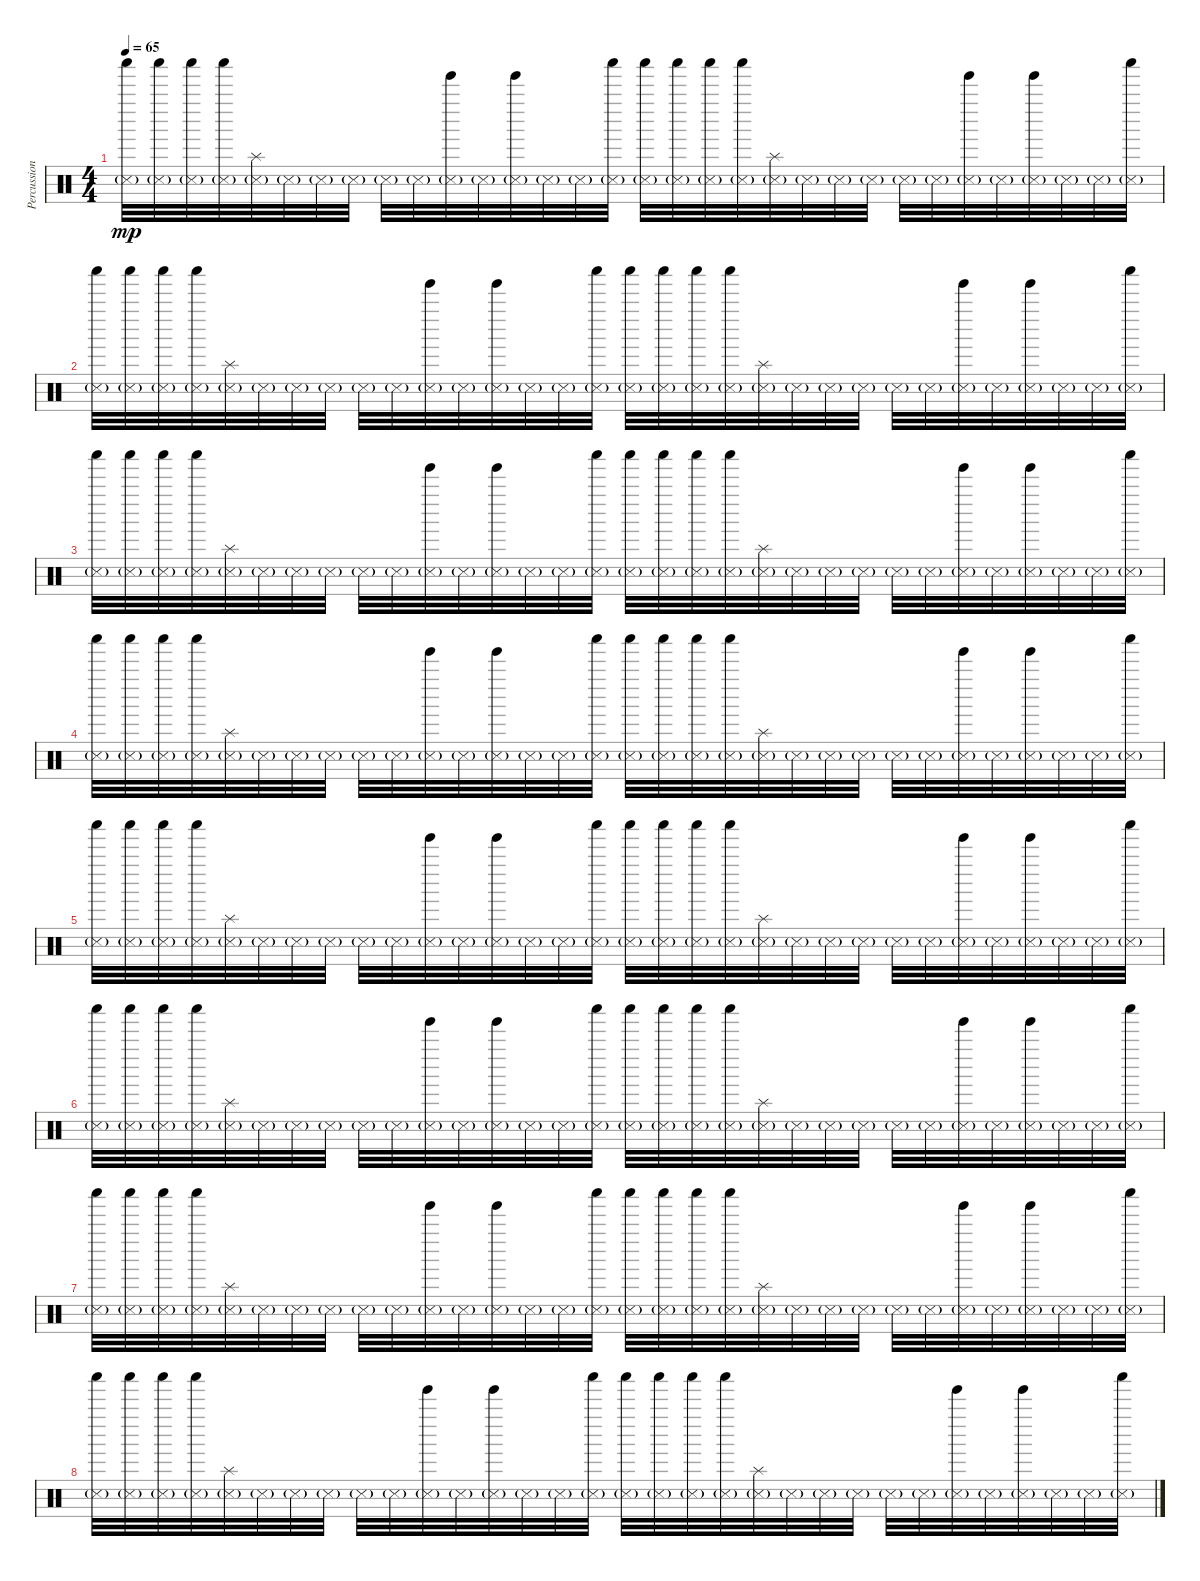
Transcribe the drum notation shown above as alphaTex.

\track ("Percussion 2" "Percussion") {instrument percussion}
\staff {score}
\articulation defaults
\ts (4 4)
\tempo 65
\clef neutral
\ks c
("Snare (side stick) 3"{g} "Shaker (hit)").32{dy mp} ("Snare (side stick) 3"{g} "Shaker (hit)").32 ("Snare (side stick) 3"{g} "Shaker (hit)").32 ("Snare (side stick) 3"{g} "Shaker (hit)").32 ("Snare (side stick) 3"{g} "Splash (hit)").32 "Snare (side stick) 3"{g}.32 "Snare (side stick) 3"{g}.32 "Snare (side stick) 3"{g}.32 "Snare (side stick) 3"{g}.32 "Snare (side stick) 3"{g}.32 ("Tinkle Bell (hit)" "Snare (side stick) 3"{g}).32 "Snare (side stick) 3"{g}.32 ("Tinkle Bell (hit)" "Snare (side stick) 3"{g}).32 "Snare (side stick) 3"{g}.32 "Snare (side stick) 3"{g}.32 ("Snare (side stick) 3"{g} "Shaker (hit)").32 ("Snare (side stick) 3"{g} "Shaker (hit)").32 ("Snare (side stick) 3"{g} "Shaker (hit)").32 ("Snare (side stick) 3"{g} "Shaker (hit)").32 ("Snare (side stick) 3"{g} "Shaker (hit)").32 ("Snare (side stick) 3"{g} "Splash (hit)").32 "Snare (side stick) 3"{g}.32 "Snare (side stick) 3"{g}.32 "Snare (side stick) 3"{g}.32 "Snare (side stick) 3"{g}.32 "Snare (side stick) 3"{g}.32 ("Tinkle Bell (hit)" "Snare (side stick) 3"{g}).32 "Snare (side stick) 3"{g}.32 ("Tinkle Bell (hit)" "Snare (side stick) 3"{g}).32 "Snare (side stick) 3"{g}.32 "Snare (side stick) 3"{g}.32 ("Snare (side stick) 3"{g} "Shaker (hit)").32 |
("Snare (side stick) 3"{g} "Shaker (hit)").32 ("Snare (side stick) 3"{g} "Shaker (hit)").32 ("Snare (side stick) 3"{g} "Shaker (hit)").32 ("Snare (side stick) 3"{g} "Shaker (hit)").32 ("Snare (side stick) 3"{g} "Splash (hit)").32 "Snare (side stick) 3"{g}.32 "Snare (side stick) 3"{g}.32 "Snare (side stick) 3"{g}.32 "Snare (side stick) 3"{g}.32 "Snare (side stick) 3"{g}.32 ("Tinkle Bell (hit)" "Snare (side stick) 3"{g}).32 "Snare (side stick) 3"{g}.32 ("Tinkle Bell (hit)" "Snare (side stick) 3"{g}).32 "Snare (side stick) 3"{g}.32 "Snare (side stick) 3"{g}.32 ("Snare (side stick) 3"{g} "Shaker (hit)").32 ("Snare (side stick) 3"{g} "Shaker (hit)").32 ("Snare (side stick) 3"{g} "Shaker (hit)").32 ("Snare (side stick) 3"{g} "Shaker (hit)").32 ("Snare (side stick) 3"{g} "Shaker (hit)").32 ("Snare (side stick) 3"{g} "Splash (hit)").32 "Snare (side stick) 3"{g}.32 "Snare (side stick) 3"{g}.32 "Snare (side stick) 3"{g}.32 "Snare (side stick) 3"{g}.32 "Snare (side stick) 3"{g}.32 ("Tinkle Bell (hit)" "Snare (side stick) 3"{g}).32 "Snare (side stick) 3"{g}.32 ("Tinkle Bell (hit)" "Snare (side stick) 3"{g}).32 "Snare (side stick) 3"{g}.32 "Snare (side stick) 3"{g}.32 ("Snare (side stick) 3"{g} "Shaker (hit)").32 |
("Snare (side stick) 3"{g} "Shaker (hit)").32 ("Snare (side stick) 3"{g} "Shaker (hit)").32 ("Snare (side stick) 3"{g} "Shaker (hit)").32 ("Snare (side stick) 3"{g} "Shaker (hit)").32 ("Snare (side stick) 3"{g} "Splash (hit)").32 "Snare (side stick) 3"{g}.32 "Snare (side stick) 3"{g}.32 "Snare (side stick) 3"{g}.32 "Snare (side stick) 3"{g}.32 "Snare (side stick) 3"{g}.32 ("Tinkle Bell (hit)" "Snare (side stick) 3"{g}).32 "Snare (side stick) 3"{g}.32 ("Tinkle Bell (hit)" "Snare (side stick) 3"{g}).32 "Snare (side stick) 3"{g}.32 "Snare (side stick) 3"{g}.32 ("Snare (side stick) 3"{g} "Shaker (hit)").32 ("Snare (side stick) 3"{g} "Shaker (hit)").32 ("Snare (side stick) 3"{g} "Shaker (hit)").32 ("Snare (side stick) 3"{g} "Shaker (hit)").32 ("Snare (side stick) 3"{g} "Shaker (hit)").32 ("Snare (side stick) 3"{g} "Splash (hit)").32 "Snare (side stick) 3"{g}.32 "Snare (side stick) 3"{g}.32 "Snare (side stick) 3"{g}.32 "Snare (side stick) 3"{g}.32 "Snare (side stick) 3"{g}.32 ("Tinkle Bell (hit)" "Snare (side stick) 3"{g}).32 "Snare (side stick) 3"{g}.32 ("Tinkle Bell (hit)" "Snare (side stick) 3"{g}).32 "Snare (side stick) 3"{g}.32 "Snare (side stick) 3"{g}.32 ("Snare (side stick) 3"{g} "Shaker (hit)").32 |
("Snare (side stick) 3"{g} "Shaker (hit)").32 ("Snare (side stick) 3"{g} "Shaker (hit)").32 ("Snare (side stick) 3"{g} "Shaker (hit)").32 ("Snare (side stick) 3"{g} "Shaker (hit)").32 ("Snare (side stick) 3"{g} "Splash (hit)").32 "Snare (side stick) 3"{g}.32 "Snare (side stick) 3"{g}.32 "Snare (side stick) 3"{g}.32 "Snare (side stick) 3"{g}.32 "Snare (side stick) 3"{g}.32 ("Tinkle Bell (hit)" "Snare (side stick) 3"{g}).32 "Snare (side stick) 3"{g}.32 ("Tinkle Bell (hit)" "Snare (side stick) 3"{g}).32 "Snare (side stick) 3"{g}.32 "Snare (side stick) 3"{g}.32 ("Snare (side stick) 3"{g} "Shaker (hit)").32 ("Snare (side stick) 3"{g} "Shaker (hit)").32 ("Snare (side stick) 3"{g} "Shaker (hit)").32 ("Snare (side stick) 3"{g} "Shaker (hit)").32 ("Snare (side stick) 3"{g} "Shaker (hit)").32 ("Snare (side stick) 3"{g} "Splash (hit)").32 "Snare (side stick) 3"{g}.32 "Snare (side stick) 3"{g}.32 "Snare (side stick) 3"{g}.32 "Snare (side stick) 3"{g}.32 "Snare (side stick) 3"{g}.32 ("Tinkle Bell (hit)" "Snare (side stick) 3"{g}).32 "Snare (side stick) 3"{g}.32 ("Tinkle Bell (hit)" "Snare (side stick) 3"{g}).32 "Snare (side stick) 3"{g}.32 "Snare (side stick) 3"{g}.32 ("Snare (side stick) 3"{g} "Shaker (hit)").32 |
\section ("" "")
("Snare (side stick) 3"{g} "Shaker (hit)").32 ("Snare (side stick) 3"{g} "Shaker (hit)").32 ("Snare (side stick) 3"{g} "Shaker (hit)").32 ("Snare (side stick) 3"{g} "Shaker (hit)").32 ("Snare (side stick) 3"{g} "Splash (hit)").32 "Snare (side stick) 3"{g}.32 "Snare (side stick) 3"{g}.32 "Snare (side stick) 3"{g}.32 "Snare (side stick) 3"{g}.32 "Snare (side stick) 3"{g}.32 ("Tinkle Bell (hit)" "Snare (side stick) 3"{g}).32 "Snare (side stick) 3"{g}.32 ("Tinkle Bell (hit)" "Snare (side stick) 3"{g}).32 "Snare (side stick) 3"{g}.32 "Snare (side stick) 3"{g}.32 ("Snare (side stick) 3"{g} "Shaker (hit)").32 ("Snare (side stick) 3"{g} "Shaker (hit)").32 ("Snare (side stick) 3"{g} "Shaker (hit)").32 ("Snare (side stick) 3"{g} "Shaker (hit)").32 ("Snare (side stick) 3"{g} "Shaker (hit)").32 ("Snare (side stick) 3"{g} "Splash (hit)").32 "Snare (side stick) 3"{g}.32 "Snare (side stick) 3"{g}.32 "Snare (side stick) 3"{g}.32 "Snare (side stick) 3"{g}.32 "Snare (side stick) 3"{g}.32 ("Tinkle Bell (hit)" "Snare (side stick) 3"{g}).32 "Snare (side stick) 3"{g}.32 ("Tinkle Bell (hit)" "Snare (side stick) 3"{g}).32 "Snare (side stick) 3"{g}.32 "Snare (side stick) 3"{g}.32 ("Snare (side stick) 3"{g} "Shaker (hit)").32 |
("Snare (side stick) 3"{g} "Shaker (hit)").32 ("Snare (side stick) 3"{g} "Shaker (hit)").32 ("Snare (side stick) 3"{g} "Shaker (hit)").32 ("Snare (side stick) 3"{g} "Shaker (hit)").32 ("Snare (side stick) 3"{g} "Splash (hit)").32 "Snare (side stick) 3"{g}.32 "Snare (side stick) 3"{g}.32 "Snare (side stick) 3"{g}.32 "Snare (side stick) 3"{g}.32 "Snare (side stick) 3"{g}.32 ("Tinkle Bell (hit)" "Snare (side stick) 3"{g}).32 "Snare (side stick) 3"{g}.32 ("Tinkle Bell (hit)" "Snare (side stick) 3"{g}).32 "Snare (side stick) 3"{g}.32 "Snare (side stick) 3"{g}.32 ("Snare (side stick) 3"{g} "Shaker (hit)").32 ("Snare (side stick) 3"{g} "Shaker (hit)").32 ("Snare (side stick) 3"{g} "Shaker (hit)").32 ("Snare (side stick) 3"{g} "Shaker (hit)").32 ("Snare (side stick) 3"{g} "Shaker (hit)").32 ("Snare (side stick) 3"{g} "Splash (hit)").32 "Snare (side stick) 3"{g}.32 "Snare (side stick) 3"{g}.32 "Snare (side stick) 3"{g}.32 "Snare (side stick) 3"{g}.32 "Snare (side stick) 3"{g}.32 ("Tinkle Bell (hit)" "Snare (side stick) 3"{g}).32 "Snare (side stick) 3"{g}.32 ("Tinkle Bell (hit)" "Snare (side stick) 3"{g}).32 "Snare (side stick) 3"{g}.32 "Snare (side stick) 3"{g}.32 ("Snare (side stick) 3"{g} "Shaker (hit)").32 |
("Snare (side stick) 3"{g} "Shaker (hit)").32 ("Snare (side stick) 3"{g} "Shaker (hit)").32 ("Snare (side stick) 3"{g} "Shaker (hit)").32 ("Snare (side stick) 3"{g} "Shaker (hit)").32 ("Snare (side stick) 3"{g} "Splash (hit)").32 "Snare (side stick) 3"{g}.32 "Snare (side stick) 3"{g}.32 "Snare (side stick) 3"{g}.32 "Snare (side stick) 3"{g}.32 "Snare (side stick) 3"{g}.32 ("Tinkle Bell (hit)" "Snare (side stick) 3"{g}).32 "Snare (side stick) 3"{g}.32 ("Tinkle Bell (hit)" "Snare (side stick) 3"{g}).32 "Snare (side stick) 3"{g}.32 "Snare (side stick) 3"{g}.32 ("Snare (side stick) 3"{g} "Shaker (hit)").32 ("Snare (side stick) 3"{g} "Shaker (hit)").32 ("Snare (side stick) 3"{g} "Shaker (hit)").32 ("Snare (side stick) 3"{g} "Shaker (hit)").32 ("Snare (side stick) 3"{g} "Shaker (hit)").32 ("Snare (side stick) 3"{g} "Splash (hit)").32 "Snare (side stick) 3"{g}.32 "Snare (side stick) 3"{g}.32 "Snare (side stick) 3"{g}.32 "Snare (side stick) 3"{g}.32 "Snare (side stick) 3"{g}.32 ("Tinkle Bell (hit)" "Snare (side stick) 3"{g}).32 "Snare (side stick) 3"{g}.32 ("Tinkle Bell (hit)" "Snare (side stick) 3"{g}).32 "Snare (side stick) 3"{g}.32 "Snare (side stick) 3"{g}.32 ("Snare (side stick) 3"{g} "Shaker (hit)").32 |
("Snare (side stick) 3"{g} "Shaker (hit)").32 ("Snare (side stick) 3"{g} "Shaker (hit)").32 ("Snare (side stick) 3"{g} "Shaker (hit)").32 ("Snare (side stick) 3"{g} "Shaker (hit)").32 ("Snare (side stick) 3"{g} "Splash (hit)").32 "Snare (side stick) 3"{g}.32 "Snare (side stick) 3"{g}.32 "Snare (side stick) 3"{g}.32 "Snare (side stick) 3"{g}.32 "Snare (side stick) 3"{g}.32 ("Tinkle Bell (hit)" "Snare (side stick) 3"{g}).32 "Snare (side stick) 3"{g}.32 ("Tinkle Bell (hit)" "Snare (side stick) 3"{g}).32 "Snare (side stick) 3"{g}.32 "Snare (side stick) 3"{g}.32 ("Snare (side stick) 3"{g} "Shaker (hit)").32 ("Snare (side stick) 3"{g} "Shaker (hit)").32 ("Snare (side stick) 3"{g} "Shaker (hit)").32 ("Snare (side stick) 3"{g} "Shaker (hit)").32 ("Snare (side stick) 3"{g} "Shaker (hit)").32 ("Snare (side stick) 3"{g} "Splash (hit)").32 "Snare (side stick) 3"{g}.32 "Snare (side stick) 3"{g}.32 "Snare (side stick) 3"{g}.32 "Snare (side stick) 3"{g}.32 "Snare (side stick) 3"{g}.32 ("Tinkle Bell (hit)" "Snare (side stick) 3"{g}).32 "Snare (side stick) 3"{g}.32 ("Tinkle Bell (hit)" "Snare (side stick) 3"{g}).32 "Snare (side stick) 3"{g}.32 "Snare (side stick) 3"{g}.32 ("Snare (side stick) 3"{g} "Shaker (hit)").32
